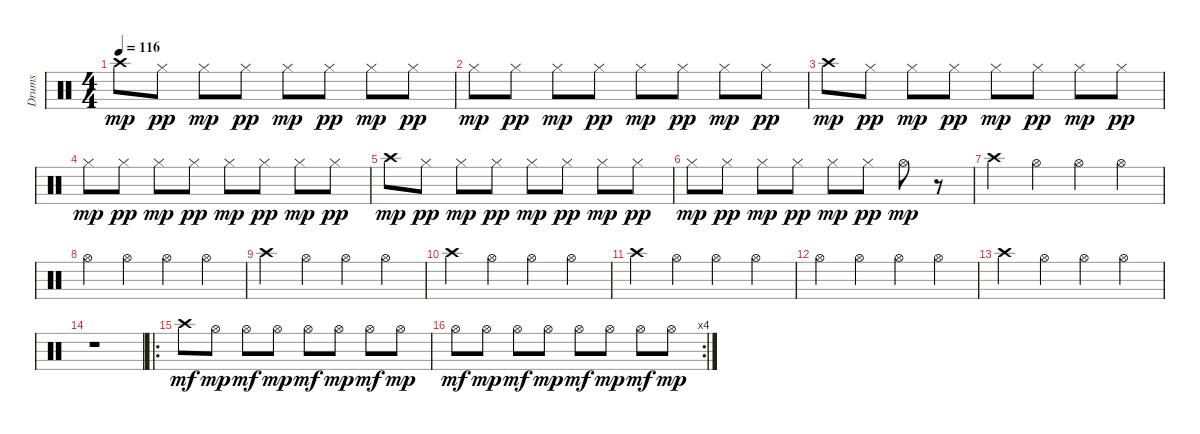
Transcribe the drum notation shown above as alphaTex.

\track ("Drums" "Drums") {instrument percussion}
\staff {score}
\articulation defaults
\ts (4 4)
\tempo 116
\clef neutral
\ks c "Crash high (hit)".8{dy mp} "Hi-Hat (closed)".8{dy pp} "Hi-Hat (closed)".8{dy mp} "Hi-Hat (closed)".8{dy pp} "Hi-Hat (closed)".8{dy mp} "Hi-Hat (closed)".8{dy pp} "Hi-Hat (closed)".8{dy mp} "Hi-Hat (closed)".8{dy pp}
|
"Hi-Hat (closed)".8{dy mp} "Hi-Hat (closed)".8{dy pp} "Hi-Hat (closed)".8{dy mp} "Hi-Hat (closed)".8{dy pp} "Hi-Hat (closed)".8{dy mp} "Hi-Hat (closed)".8{dy pp} "Hi-Hat (closed)".8{dy mp} "Hi-Hat (closed)".8{dy pp} |
"Crash high (hit)".8{dy mp} "Hi-Hat (closed)".8{dy pp} "Hi-Hat (closed)".8{dy mp} "Hi-Hat (closed)".8{dy pp} "Hi-Hat (closed)".8{dy mp} "Hi-Hat (closed)".8{dy pp} "Hi-Hat (closed)".8{dy mp} "Hi-Hat (closed)".8{dy pp} |
"Hi-Hat (closed)".8{dy mp} "Hi-Hat (closed)".8{dy pp} "Hi-Hat (closed)".8{dy mp} "Hi-Hat (closed)".8{dy pp} "Hi-Hat (closed)".8{dy mp} "Hi-Hat (closed)".8{dy pp} "Hi-Hat (closed)".8{dy mp} "Hi-Hat (closed)".8{dy pp} |
"Crash high (hit)".8{dy mp} "Hi-Hat (closed)".8{dy pp} "Hi-Hat (closed)".8{dy mp} "Hi-Hat (closed)".8{dy pp} "Hi-Hat (closed)".8{dy mp} "Hi-Hat (closed)".8{dy pp} "Hi-Hat (closed)".8{dy mp} "Hi-Hat (closed)".8{dy pp} |
"Hi-Hat (closed)".8{dy mp} "Hi-Hat (closed)".8{dy pp} "Hi-Hat (closed)".8{dy mp} "Hi-Hat (closed)".8{dy pp} "Hi-Hat (closed)".8{dy mp} "Hi-Hat (closed)".8{dy pp} "Hi-Hat (open)".8{dy mp} r.8 |
"Crash high (hit)".4 "Hi-Hat (open)".4 "Hi-Hat (open)".4 "Hi-Hat (open)".4 |
"Hi-Hat (open)".4 "Hi-Hat (open)".4 "Hi-Hat (open)".4 "Hi-Hat (open)".4 |
"Crash high (hit)".4 "Hi-Hat (open)".4 "Hi-Hat (open)".4 "Hi-Hat (open)".4 |
"Crash high (hit)".4 "Hi-Hat (open)".4 "Hi-Hat (open)".4 "Hi-Hat (open)".4 |
"Crash high (hit)".4 "Hi-Hat (open)".4 "Hi-Hat (open)".4 "Hi-Hat (open)".4 |
"Hi-Hat (open)".4 "Hi-Hat (open)".4 "Hi-Hat (open)".4 "Hi-Hat (open)".4 |
"Crash high (hit)".4 "Hi-Hat (open)".4 "Hi-Hat (open)".4 "Hi-Hat (open)".4 |
r.1 |
\ro "Crash high (hit)".8{dy mf} "Hi-Hat (open)".8{dy mp} "Hi-Hat (open)".8{dy mf} "Hi-Hat (open)".8{dy mp} "Hi-Hat (open)".8{dy mf} "Hi-Hat (open)".8{dy mp} "Hi-Hat (open)".8{dy mf} "Hi-Hat (open)".8{dy mp}
|
\rc 4 "Hi-Hat (open)".8{dy mf} "Hi-Hat (open)".8{dy mp} "Hi-Hat (open)".8{dy mf} "Hi-Hat (open)".8{dy mp} "Hi-Hat (open)".8{dy mf} "Hi-Hat (open)".8{dy mp} "Hi-Hat (open)".8{dy mf} "Hi-Hat (open)".8{dy mp}
